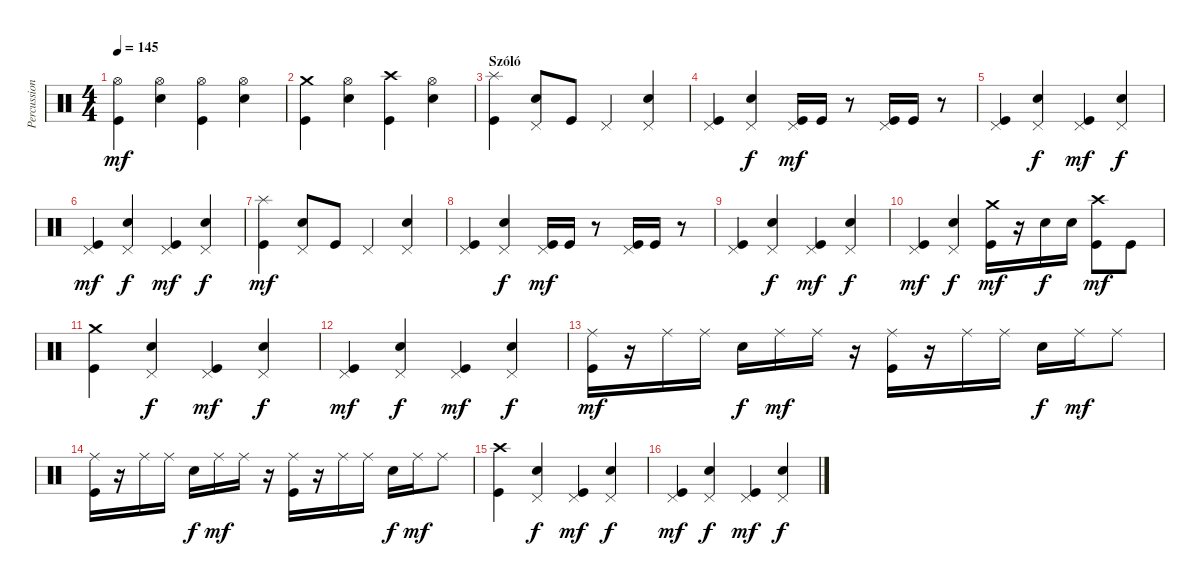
\track ("Percussion" "Percussion") {instrument percussion}
\staff {score}
\articulation defaults
\ts (4 4)
\tempo 145
\clef neutral
\ks c
("Hi-Hat (open)" "Kick (hit)").4{dy mf} ("Hi-Hat (open)" "Electric Snare (hit)").4 ("Hi-Hat (open)" "Kick (hit)").4 ("Hi-Hat (open)" "Electric Snare (hit)").4 |
("Crash medium (hit)" "Kick (hit)").4 ("Hi-Hat (open)" "Electric Snare (hit)").4 ("Crash high (hit)" "Kick (hit)").4 ("Hi-Hat (open)" "Electric Snare (hit)").4 |
\section ("" "Szóló")
("Splash (hit)" "Kick (hit)").4 ("Pedal Hi-Hat (hit)" "Electric Snare (hit)").8 "Kick (hit)".8 "Pedal Hi-Hat (hit)".4 ("Pedal Hi-Hat (hit)" "Electric Snare (hit)").4 |
("Pedal Hi-Hat (hit)" "Kick (hit)").4 ("Pedal Hi-Hat (hit)" "Electric Snare (hit)").4{dy f} ("Pedal Hi-Hat (hit)" "Kick (hit)").16{dy mf} "Kick (hit)".16 r.8 ("Pedal Hi-Hat (hit)" "Kick (hit)").16 "Kick (hit)".16 r.8 |
("Pedal Hi-Hat (hit)" "Kick (hit)").4 ("Pedal Hi-Hat (hit)" "Electric Snare (hit)").4{dy f} ("Pedal Hi-Hat (hit)" "Kick (hit)").4{dy mf} ("Pedal Hi-Hat (hit)" "Electric Snare (hit)").4{dy f} |
("Pedal Hi-Hat (hit)" "Kick (hit)").4{dy mf} ("Pedal Hi-Hat (hit)" "Electric Snare (hit)").4{dy f} ("Pedal Hi-Hat (hit)" "Kick (hit)").4{dy mf} ("Pedal Hi-Hat (hit)" "Electric Snare (hit)").4{dy f} |
("Splash (hit)" "Kick (hit)").4{dy mf} ("Pedal Hi-Hat (hit)" "Electric Snare (hit)").8 "Kick (hit)".8 "Pedal Hi-Hat (hit)".4 ("Pedal Hi-Hat (hit)" "Electric Snare (hit)").4 |
("Pedal Hi-Hat (hit)" "Kick (hit)").4 ("Pedal Hi-Hat (hit)" "Electric Snare (hit)").4{dy f} ("Pedal Hi-Hat (hit)" "Kick (hit)").16{dy mf} "Kick (hit)".16 r.8 ("Pedal Hi-Hat (hit)" "Kick (hit)").16 "Kick (hit)".16 r.8 |
("Pedal Hi-Hat (hit)" "Kick (hit)").4 ("Pedal Hi-Hat (hit)" "Electric Snare (hit)").4{dy f} ("Pedal Hi-Hat (hit)" "Kick (hit)").4{dy mf} ("Pedal Hi-Hat (hit)" "Electric Snare (hit)").4{dy f} |
("Pedal Hi-Hat (hit)" "Kick (hit)").4{dy mf} ("Pedal Hi-Hat (hit)" "Electric Snare (hit)").4{dy f} ("Crash medium (hit)" "Kick (hit)").16{dy mf} r.16 "Electric Snare (hit)".16{dy f} "Electric Snare (hit)".16 ("Crash high (hit)" "Kick (hit)").8{dy mf} "Kick (hit)".8 |
("Crash medium (hit)" "Kick (hit)").4 ("Pedal Hi-Hat (hit)" "Electric Snare (hit)").4{dy f} ("Pedal Hi-Hat (hit)" "Kick (hit)").4{dy mf} ("Pedal Hi-Hat (hit)" "Electric Snare (hit)").4{dy f} |
("Pedal Hi-Hat (hit)" "Kick (hit)").4{dy mf} ("Pedal Hi-Hat (hit)" "Electric Snare (hit)").4{dy f} ("Pedal Hi-Hat (hit)" "Kick (hit)").4{dy mf} ("Pedal Hi-Hat (hit)" "Electric Snare (hit)").4{dy f} |
("Ride (middle)" "Kick (hit)").16{dy mf} r.16 "Ride (middle)".16 "Ride (middle)".16 "Electric Snare (hit)".16{dy f} "Ride (middle)".16{dy mf} "Ride (middle)".16 r.16 ("Ride (middle)" "Kick (hit)").16 r.16 "Ride (middle)".16 "Ride (middle)".16 "Electric Snare (hit)".16{dy f} "Ride (middle)".16{dy mf} "Ride (middle)".8 |
("Ride (middle)" "Kick (hit)").16 r.16 "Ride (middle)".16 "Ride (middle)".16 "Electric Snare (hit)".16{dy f} "Ride (middle)".16{dy mf} "Ride (middle)".16 r.16 ("Ride (middle)" "Kick (hit)").16 r.16 "Ride (middle)".16 "Ride (middle)".16 "Electric Snare (hit)".16{dy f} "Ride (middle)".16{dy mf} "Ride (middle)".8 |
("Crash high (hit)" "Kick (hit)").4 ("Pedal Hi-Hat (hit)" "Electric Snare (hit)").4{dy f} ("Pedal Hi-Hat (hit)" "Kick (hit)").4{dy mf} ("Pedal Hi-Hat (hit)" "Electric Snare (hit)").4{dy f} |
("Pedal Hi-Hat (hit)" "Kick (hit)").4{dy mf} ("Pedal Hi-Hat (hit)" "Electric Snare (hit)").4{dy f} ("Pedal Hi-Hat (hit)" "Kick (hit)").4{dy mf} ("Pedal Hi-Hat (hit)" "Electric Snare (hit)").4{dy f}
